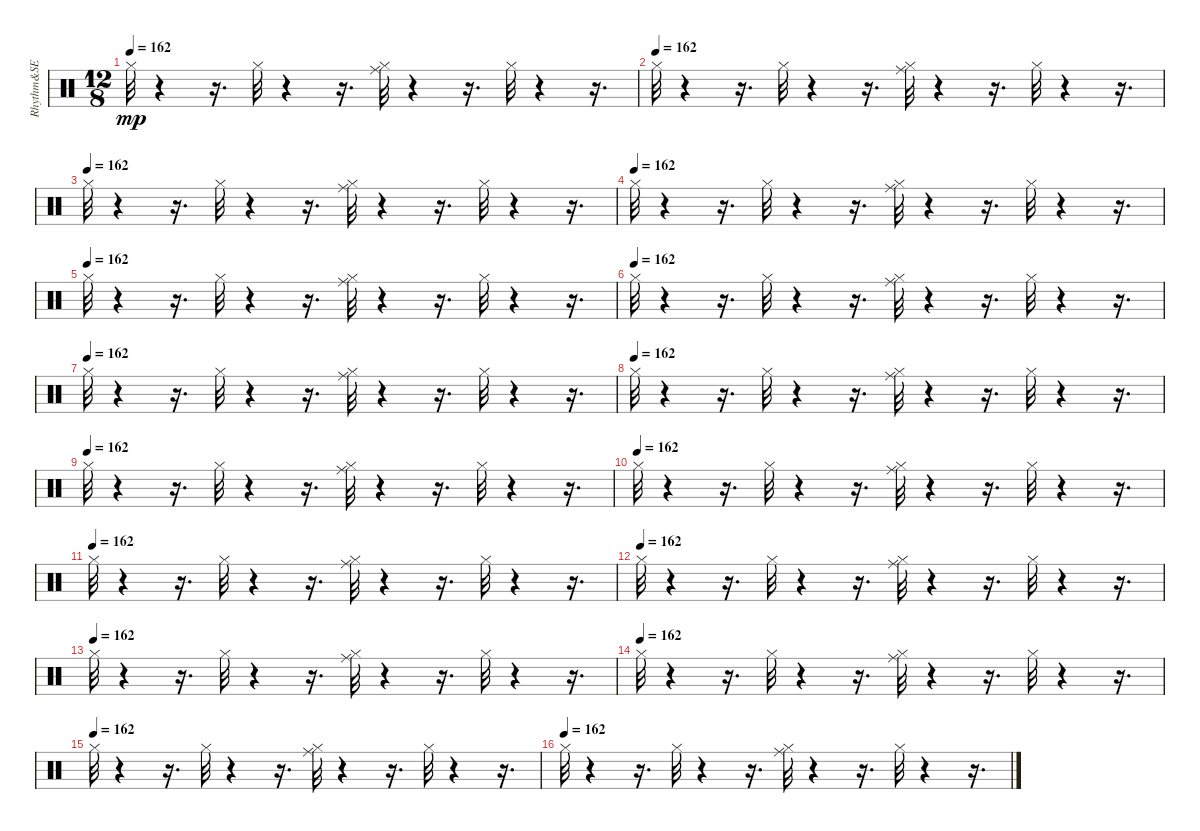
\track ("Rhythm&SE" "Rhythm&SE") {instrument percussion}
\staff {score}
\articulation defaults
\ts (12 8)
\tempo 162
\clef neutral
\ks c "Hi-Hat (closed)".32{dy mp}
r.4 r.16{d} "Hi-Hat (closed)".32 r.4 r.16{d} ("Hi-Hat (closed)" "Ride (middle)").32 r.4 r.16{d} "Hi-Hat (closed)".32 r.4 r.16{d} |
\tempo (162)
"Hi-Hat (closed)".32 r.4 r.16{d} "Hi-Hat (closed)".32 r.4 r.16{d} ("Hi-Hat (closed)" "Ride (middle)").32 r.4 r.16{d} "Hi-Hat (closed)".32 r.4 r.16{d} |
\tempo (162)
"Hi-Hat (closed)".32 r.4 r.16{d} "Hi-Hat (closed)".32 r.4 r.16{d} ("Hi-Hat (closed)" "Ride (middle)").32 r.4 r.16{d} "Hi-Hat (closed)".32 r.4 r.16{d} |
\tempo (162)
"Hi-Hat (closed)".32 r.4 r.16{d} "Hi-Hat (closed)".32 r.4 r.16{d} ("Hi-Hat (closed)" "Ride (middle)").32 r.4 r.16{d} "Hi-Hat (closed)".32 r.4 r.16{d} |
\tempo (162)
"Hi-Hat (closed)".32 r.4 r.16{d} "Hi-Hat (closed)".32 r.4 r.16{d} ("Hi-Hat (closed)" "Ride (middle)").32 r.4 r.16{d} "Hi-Hat (closed)".32 r.4 r.16{d} |
\tempo (162)
"Hi-Hat (closed)".32 r.4 r.16{d} "Hi-Hat (closed)".32 r.4 r.16{d} ("Hi-Hat (closed)" "Ride (middle)").32 r.4 r.16{d} "Hi-Hat (closed)".32 r.4 r.16{d} |
\tempo (162)
"Hi-Hat (closed)".32 r.4 r.16{d} "Hi-Hat (closed)".32 r.4 r.16{d} ("Hi-Hat (closed)" "Ride (middle)").32 r.4 r.16{d} "Hi-Hat (closed)".32 r.4 r.16{d} |
\tempo (162)
"Hi-Hat (closed)".32 r.4 r.16{d} "Hi-Hat (closed)".32 r.4 r.16{d} ("Hi-Hat (closed)" "Ride (middle)").32 r.4 r.16{d} "Hi-Hat (closed)".32 r.4 r.16{d} |
\tempo (162)
"Hi-Hat (closed)".32 r.4 r.16{d} "Hi-Hat (closed)".32 r.4 r.16{d} ("Hi-Hat (closed)" "Ride (middle)").32 r.4 r.16{d} "Hi-Hat (closed)".32 r.4 r.16{d} |
\tempo (162)
"Hi-Hat (closed)".32 r.4 r.16{d} "Hi-Hat (closed)".32 r.4 r.16{d} ("Hi-Hat (closed)" "Ride (middle)").32 r.4 r.16{d} "Hi-Hat (closed)".32 r.4 r.16{d} |
\tempo (162)
"Hi-Hat (closed)".32 r.4 r.16{d} "Hi-Hat (closed)".32 r.4 r.16{d} ("Hi-Hat (closed)" "Ride (middle)").32 r.4 r.16{d} "Hi-Hat (closed)".32 r.4 r.16{d} |
\tempo (162)
"Hi-Hat (closed)".32 r.4 r.16{d} "Hi-Hat (closed)".32 r.4 r.16{d} ("Hi-Hat (closed)" "Ride (middle)").32 r.4 r.16{d} "Hi-Hat (closed)".32 r.4 r.16{d} |
\tempo (162)
"Hi-Hat (closed)".32 r.4 r.16{d} "Hi-Hat (closed)".32 r.4 r.16{d} ("Hi-Hat (closed)" "Ride (middle)").32 r.4 r.16{d} "Hi-Hat (closed)".32 r.4 r.16{d} |
\tempo (162)
"Hi-Hat (closed)".32 r.4 r.16{d} "Hi-Hat (closed)".32 r.4 r.16{d} ("Hi-Hat (closed)" "Ride (middle)").32 r.4 r.16{d} "Hi-Hat (closed)".32 r.4 r.16{d} |
\tempo (162)
"Hi-Hat (closed)".32 r.4 r.16{d} "Hi-Hat (closed)".32 r.4 r.16{d} ("Hi-Hat (closed)" "Ride (middle)").32 r.4 r.16{d} "Hi-Hat (closed)".32 r.4 r.16{d} |
\tempo (162)
"Hi-Hat (closed)".32 r.4 r.16{d} "Hi-Hat (closed)".32 r.4 r.16{d} ("Hi-Hat (closed)" "Ride (middle)").32 r.4 r.16{d} "Hi-Hat (closed)".32 r.4 r.16{d}
